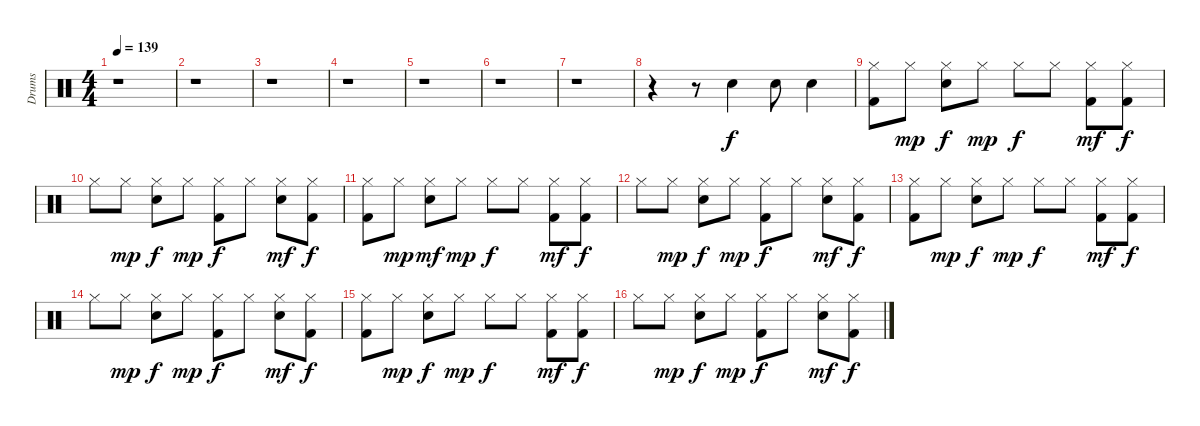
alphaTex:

\track ("Drums" "Drums") {instrument percussion}
\staff {score}
\articulation defaults
\ts (4 4)
\tempo 139
\clef neutral
\ks c
r.1{dy f} |
r.1 |
r.1 |
r.1 |
r.1 |
r.1 |
r.1 |
r.4 r.8 "Snare (hit) 2".4 "Snare (hit) 2".8 "Snare (hit) 2".4 |
("Hi-Hat (closed)" "Kick (hit) 2").8 "Hi-Hat (closed)".8{dy mp} ("Hi-Hat (closed)" "Snare (hit) 2").8{dy f} "Hi-Hat (closed)".8{dy mp} "Hi-Hat (closed)".8{dy f} "Hi-Hat (closed)".8 ("Hi-Hat (closed)" "Kick (hit) 2").8{dy mf} ("Hi-Hat (closed)" "Kick (hit) 2").8{dy f} |
"Hi-Hat (closed)".8 "Hi-Hat (closed)".8{dy mp} ("Hi-Hat (closed)" "Snare (hit) 2").8{dy f} "Hi-Hat (closed)".8{dy mp} ("Hi-Hat (closed)" "Kick (hit) 2").8{dy f} "Hi-Hat (closed)".8 ("Hi-Hat (closed)" "Snare (hit) 2").8{dy mf} ("Hi-Hat (closed)" "Kick (hit) 2").8{dy f} |
("Hi-Hat (closed)" "Kick (hit) 2").8 "Hi-Hat (closed)".8{dy mp} ("Hi-Hat (closed)" "Snare (hit) 2").8{dy mf} "Hi-Hat (closed)".8{dy mp} "Hi-Hat (closed)".8{dy f} "Hi-Hat (closed)".8 ("Hi-Hat (closed)" "Kick (hit) 2").8{dy mf} ("Hi-Hat (closed)" "Kick (hit) 2").8{dy f} |
"Hi-Hat (closed)".8 "Hi-Hat (closed)".8{dy mp} ("Hi-Hat (closed)" "Snare (hit) 2").8{dy f} "Hi-Hat (closed)".8{dy mp} ("Hi-Hat (closed)" "Kick (hit) 2").8{dy f} "Hi-Hat (closed)".8 ("Hi-Hat (closed)" "Snare (hit) 2").8{dy mf} ("Hi-Hat (closed)" "Kick (hit) 2").8{dy f} |
("Hi-Hat (closed)" "Kick (hit) 2").8 "Hi-Hat (closed)".8{dy mp} ("Hi-Hat (closed)" "Snare (hit) 2").8{dy f} "Hi-Hat (closed)".8{dy mp} "Hi-Hat (closed)".8{dy f} "Hi-Hat (closed)".8 ("Hi-Hat (closed)" "Kick (hit) 2").8{dy mf} ("Hi-Hat (closed)" "Kick (hit) 2").8{dy f} |
"Hi-Hat (closed)".8 "Hi-Hat (closed)".8{dy mp} ("Hi-Hat (closed)" "Snare (hit) 2").8{dy f} "Hi-Hat (closed)".8{dy mp} ("Hi-Hat (closed)" "Kick (hit) 2").8{dy f} "Hi-Hat (closed)".8 ("Hi-Hat (closed)" "Snare (hit) 2").8{dy mf} ("Hi-Hat (closed)" "Kick (hit) 2").8{dy f} |
("Hi-Hat (closed)" "Kick (hit) 2").8 "Hi-Hat (closed)".8{dy mp} ("Hi-Hat (closed)" "Snare (hit) 2").8{dy f} "Hi-Hat (closed)".8{dy mp} "Hi-Hat (closed)".8{dy f} "Hi-Hat (closed)".8 ("Hi-Hat (closed)" "Kick (hit) 2").8{dy mf} ("Hi-Hat (closed)" "Kick (hit) 2").8{dy f} |
"Hi-Hat (closed)".8 "Hi-Hat (closed)".8{dy mp} ("Hi-Hat (closed)" "Snare (hit) 2").8{dy f} "Hi-Hat (closed)".8{dy mp} ("Hi-Hat (closed)" "Kick (hit) 2").8{dy f} "Hi-Hat (closed)".8 ("Hi-Hat (closed)" "Snare (hit) 2").8{dy mf} ("Hi-Hat (closed)" "Kick (hit) 2").8{dy f}
